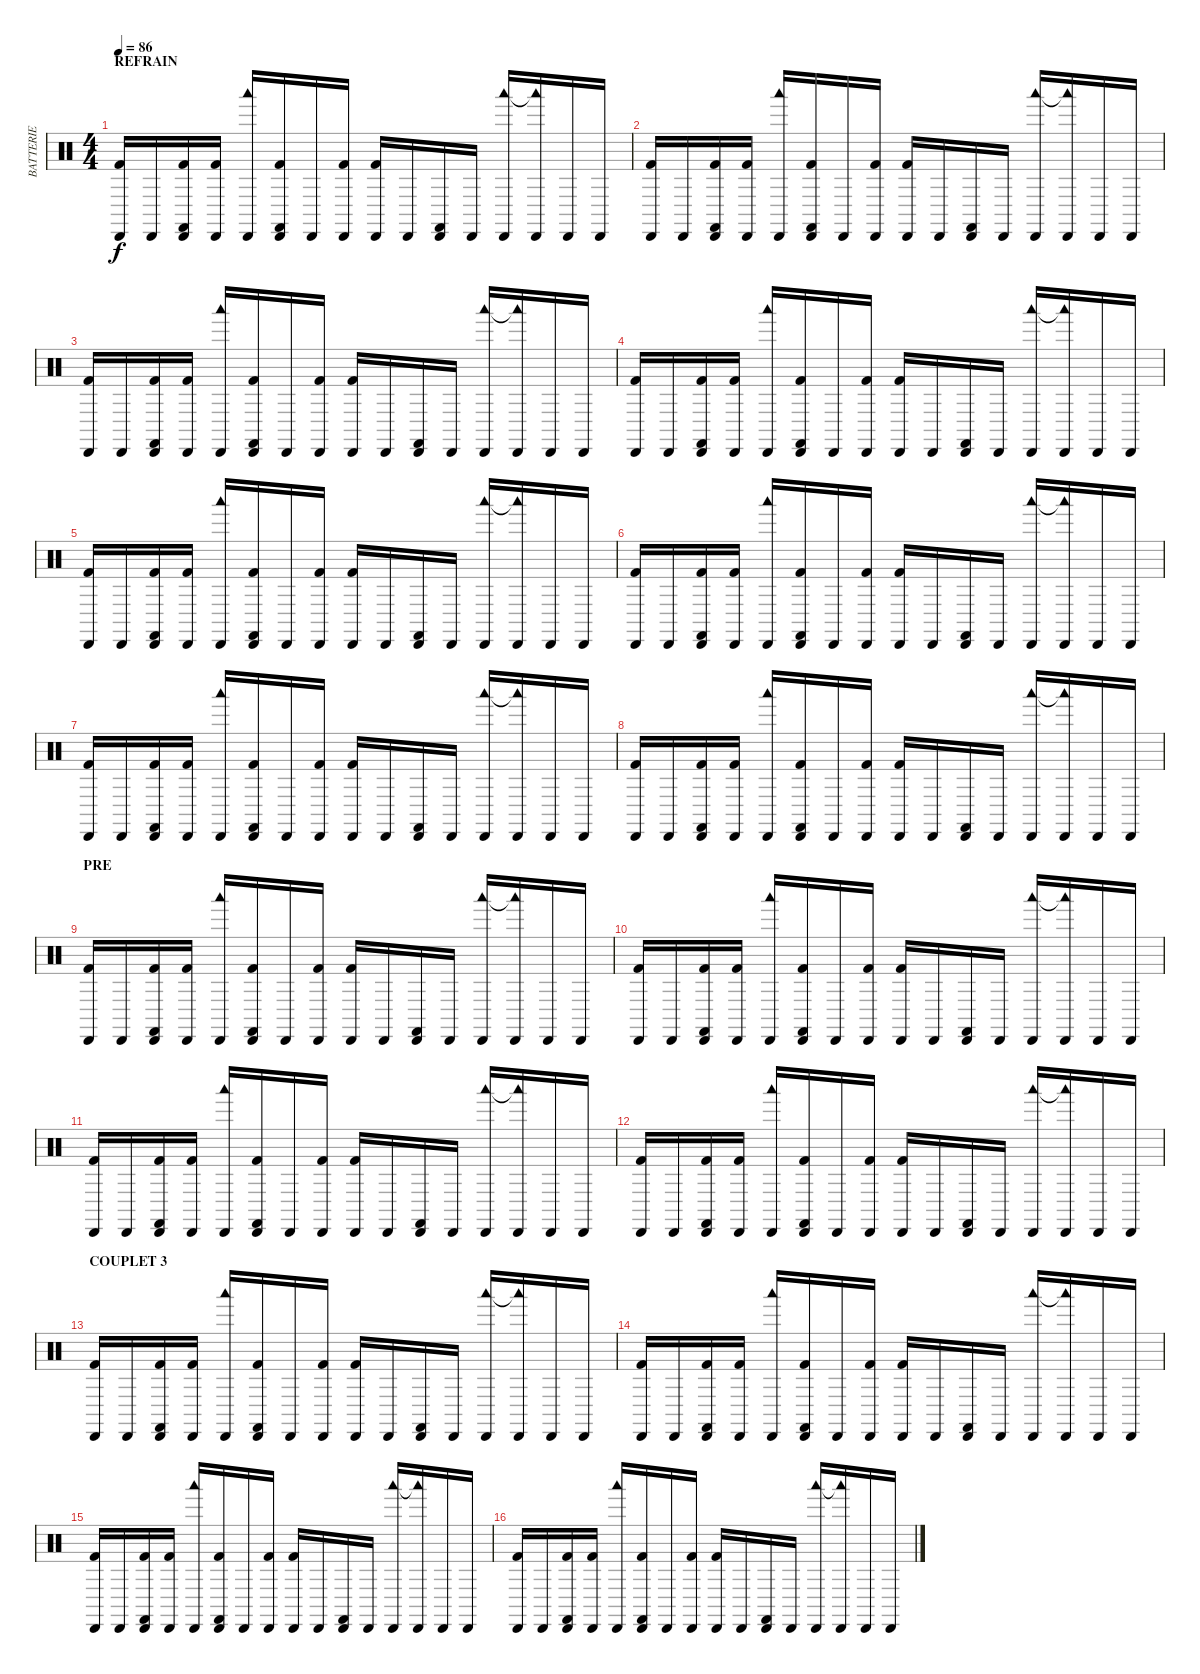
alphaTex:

\track ("BATTERIE" "BATTERIE") {instrument percussion}
\staff {score}
\articulation defaults
\ts (4 4)
\section ("" "REFRAIN")
\tempo 86
\clef neutral
\ks c
("Cabasa (hit)" "Kick (hit) 2").16{dy f} "Cabasa (hit)".16 ("Cabasa (hit)" "Castanets (hit)" "Kick (hit) 2").16 ("Cabasa (hit)" "Kick (hit) 2").16 ("Cabasa (hit)" "Woodblock low (hit)").16 ("Cabasa (hit)" "Castanets (hit)" "Kick (hit) 2").16 "Cabasa (hit)".16 ("Cabasa (hit)" "Kick (hit) 2").16 ("Cabasa (hit)" "Kick (hit) 2").16 "Cabasa (hit)".16 ("Cabasa (hit)" "Castanets (hit)").16 "Cabasa (hit)".16 ("Cabasa (hit)" "Woodblock low (hit)").16 ("Cabasa (hit)" "Woodblock low (hit)"{t}).16 "Cabasa (hit)".16 "Cabasa (hit)".16 |
("Cabasa (hit)" "Kick (hit) 2").16 "Cabasa (hit)".16 ("Cabasa (hit)" "Castanets (hit)" "Kick (hit) 2").16 ("Cabasa (hit)" "Kick (hit) 2").16 ("Cabasa (hit)" "Woodblock low (hit)").16 ("Cabasa (hit)" "Castanets (hit)" "Kick (hit) 2").16 "Cabasa (hit)".16 ("Cabasa (hit)" "Kick (hit) 2").16 ("Cabasa (hit)" "Kick (hit) 2").16 "Cabasa (hit)".16 ("Cabasa (hit)" "Castanets (hit)").16 "Cabasa (hit)".16 ("Cabasa (hit)" "Woodblock low (hit)").16 ("Cabasa (hit)" "Woodblock low (hit)"{t}).16 "Cabasa (hit)".16 "Cabasa (hit)".16 |
("Cabasa (hit)" "Kick (hit) 2").16 "Cabasa (hit)".16 ("Cabasa (hit)" "Castanets (hit)" "Kick (hit) 2").16 ("Cabasa (hit)" "Kick (hit) 2").16 ("Cabasa (hit)" "Woodblock low (hit)").16 ("Cabasa (hit)" "Castanets (hit)" "Kick (hit) 2").16 "Cabasa (hit)".16 ("Cabasa (hit)" "Kick (hit) 2").16 ("Cabasa (hit)" "Kick (hit) 2").16 "Cabasa (hit)".16 ("Cabasa (hit)" "Castanets (hit)").16 "Cabasa (hit)".16 ("Cabasa (hit)" "Woodblock low (hit)").16 ("Cabasa (hit)" "Woodblock low (hit)"{t}).16 "Cabasa (hit)".16 "Cabasa (hit)".16 |
("Cabasa (hit)" "Kick (hit) 2").16 "Cabasa (hit)".16 ("Cabasa (hit)" "Castanets (hit)" "Kick (hit) 2").16 ("Cabasa (hit)" "Kick (hit) 2").16 ("Cabasa (hit)" "Woodblock low (hit)").16 ("Cabasa (hit)" "Castanets (hit)" "Kick (hit) 2").16 "Cabasa (hit)".16 ("Cabasa (hit)" "Kick (hit) 2").16 ("Cabasa (hit)" "Kick (hit) 2").16 "Cabasa (hit)".16 ("Cabasa (hit)" "Castanets (hit)").16 "Cabasa (hit)".16 ("Cabasa (hit)" "Woodblock low (hit)").16 ("Cabasa (hit)" "Woodblock low (hit)"{t}).16 "Cabasa (hit)".16 "Cabasa (hit)".16 |
("Cabasa (hit)" "Kick (hit) 2").16 "Cabasa (hit)".16 ("Cabasa (hit)" "Castanets (hit)" "Kick (hit) 2").16 ("Cabasa (hit)" "Kick (hit) 2").16 ("Cabasa (hit)" "Woodblock low (hit)").16 ("Cabasa (hit)" "Castanets (hit)" "Kick (hit) 2").16 "Cabasa (hit)".16 ("Cabasa (hit)" "Kick (hit) 2").16 ("Cabasa (hit)" "Kick (hit) 2").16 "Cabasa (hit)".16 ("Cabasa (hit)" "Castanets (hit)").16 "Cabasa (hit)".16 ("Cabasa (hit)" "Woodblock low (hit)").16 ("Cabasa (hit)" "Woodblock low (hit)"{t}).16 "Cabasa (hit)".16 "Cabasa (hit)".16 |
("Cabasa (hit)" "Kick (hit) 2").16 "Cabasa (hit)".16 ("Cabasa (hit)" "Castanets (hit)" "Kick (hit) 2").16 ("Cabasa (hit)" "Kick (hit) 2").16 ("Cabasa (hit)" "Woodblock low (hit)").16 ("Cabasa (hit)" "Castanets (hit)" "Kick (hit) 2").16 "Cabasa (hit)".16 ("Cabasa (hit)" "Kick (hit) 2").16 ("Cabasa (hit)" "Kick (hit) 2").16 "Cabasa (hit)".16 ("Cabasa (hit)" "Castanets (hit)").16 "Cabasa (hit)".16 ("Cabasa (hit)" "Woodblock low (hit)").16 ("Cabasa (hit)" "Woodblock low (hit)"{t}).16 "Cabasa (hit)".16 "Cabasa (hit)".16 |
("Cabasa (hit)" "Kick (hit) 2").16 "Cabasa (hit)".16 ("Cabasa (hit)" "Castanets (hit)" "Kick (hit) 2").16 ("Cabasa (hit)" "Kick (hit) 2").16 ("Cabasa (hit)" "Woodblock low (hit)").16 ("Cabasa (hit)" "Castanets (hit)" "Kick (hit) 2").16 "Cabasa (hit)".16 ("Cabasa (hit)" "Kick (hit) 2").16 ("Cabasa (hit)" "Kick (hit) 2").16 "Cabasa (hit)".16 ("Cabasa (hit)" "Castanets (hit)").16 "Cabasa (hit)".16 ("Cabasa (hit)" "Woodblock low (hit)").16 ("Cabasa (hit)" "Woodblock low (hit)"{t}).16 "Cabasa (hit)".16 "Cabasa (hit)".16 |
("Cabasa (hit)" "Kick (hit) 2").16 "Cabasa (hit)".16 ("Cabasa (hit)" "Castanets (hit)" "Kick (hit) 2").16 ("Cabasa (hit)" "Kick (hit) 2").16 ("Cabasa (hit)" "Woodblock low (hit)").16 ("Cabasa (hit)" "Castanets (hit)" "Kick (hit) 2").16 "Cabasa (hit)".16 ("Cabasa (hit)" "Kick (hit) 2").16 ("Cabasa (hit)" "Kick (hit) 2").16 "Cabasa (hit)".16 ("Cabasa (hit)" "Castanets (hit)").16 "Cabasa (hit)".16 ("Cabasa (hit)" "Woodblock low (hit)").16 ("Cabasa (hit)" "Woodblock low (hit)"{t}).16 "Cabasa (hit)".16 "Cabasa (hit)".16 |
\section ("" "PRE")
("Cabasa (hit)" "Kick (hit) 2").16 "Cabasa (hit)".16 ("Cabasa (hit)" "Castanets (hit)" "Kick (hit) 2").16 ("Cabasa (hit)" "Kick (hit) 2").16 ("Cabasa (hit)" "Woodblock low (hit)").16 ("Cabasa (hit)" "Castanets (hit)" "Kick (hit) 2").16 "Cabasa (hit)".16 ("Cabasa (hit)" "Kick (hit) 2").16 ("Cabasa (hit)" "Kick (hit) 2").16 "Cabasa (hit)".16 ("Cabasa (hit)" "Castanets (hit)").16 "Cabasa (hit)".16 ("Cabasa (hit)" "Woodblock low (hit)").16 ("Cabasa (hit)" "Woodblock low (hit)"{t}).16 "Cabasa (hit)".16 "Cabasa (hit)".16 |
("Cabasa (hit)" "Kick (hit) 2").16 "Cabasa (hit)".16 ("Cabasa (hit)" "Castanets (hit)" "Kick (hit) 2").16 ("Cabasa (hit)" "Kick (hit) 2").16 ("Cabasa (hit)" "Woodblock low (hit)").16 ("Cabasa (hit)" "Castanets (hit)" "Kick (hit) 2").16 "Cabasa (hit)".16 ("Cabasa (hit)" "Kick (hit) 2").16 ("Cabasa (hit)" "Kick (hit) 2").16 "Cabasa (hit)".16 ("Cabasa (hit)" "Castanets (hit)").16 "Cabasa (hit)".16 ("Cabasa (hit)" "Woodblock low (hit)").16 ("Cabasa (hit)" "Woodblock low (hit)"{t}).16 "Cabasa (hit)".16 "Cabasa (hit)".16 |
("Cabasa (hit)" "Kick (hit) 2").16 "Cabasa (hit)".16 ("Cabasa (hit)" "Castanets (hit)" "Kick (hit) 2").16 ("Cabasa (hit)" "Kick (hit) 2").16 ("Cabasa (hit)" "Woodblock low (hit)").16 ("Cabasa (hit)" "Castanets (hit)" "Kick (hit) 2").16 "Cabasa (hit)".16 ("Cabasa (hit)" "Kick (hit) 2").16 ("Cabasa (hit)" "Kick (hit) 2").16 "Cabasa (hit)".16 ("Cabasa (hit)" "Castanets (hit)").16 "Cabasa (hit)".16 ("Cabasa (hit)" "Woodblock low (hit)").16 ("Cabasa (hit)" "Woodblock low (hit)"{t}).16 "Cabasa (hit)".16 "Cabasa (hit)".16 |
("Cabasa (hit)" "Kick (hit) 2").16 "Cabasa (hit)".16 ("Cabasa (hit)" "Castanets (hit)" "Kick (hit) 2").16 ("Cabasa (hit)" "Kick (hit) 2").16 ("Cabasa (hit)" "Woodblock low (hit)").16 ("Cabasa (hit)" "Castanets (hit)" "Kick (hit) 2").16 "Cabasa (hit)".16 ("Cabasa (hit)" "Kick (hit) 2").16 ("Cabasa (hit)" "Kick (hit) 2").16 "Cabasa (hit)".16 ("Cabasa (hit)" "Castanets (hit)").16 "Cabasa (hit)".16 ("Cabasa (hit)" "Woodblock low (hit)").16 ("Cabasa (hit)" "Woodblock low (hit)"{t}).16 "Cabasa (hit)".16 "Cabasa (hit)".16 |
\section ("" "COUPLET 3")
("Cabasa (hit)" "Kick (hit) 2").16 "Cabasa (hit)".16 ("Cabasa (hit)" "Castanets (hit)" "Kick (hit) 2").16 ("Cabasa (hit)" "Kick (hit) 2").16 ("Cabasa (hit)" "Woodblock low (hit)").16 ("Cabasa (hit)" "Castanets (hit)" "Kick (hit) 2").16 "Cabasa (hit)".16 ("Cabasa (hit)" "Kick (hit) 2").16 ("Cabasa (hit)" "Kick (hit) 2").16 "Cabasa (hit)".16 ("Cabasa (hit)" "Castanets (hit)").16 "Cabasa (hit)".16 ("Cabasa (hit)" "Woodblock low (hit)").16 ("Cabasa (hit)" "Woodblock low (hit)"{t}).16 "Cabasa (hit)".16 "Cabasa (hit)".16 |
("Cabasa (hit)" "Kick (hit) 2").16 "Cabasa (hit)".16 ("Cabasa (hit)" "Castanets (hit)" "Kick (hit) 2").16 ("Cabasa (hit)" "Kick (hit) 2").16 ("Cabasa (hit)" "Woodblock low (hit)").16 ("Cabasa (hit)" "Castanets (hit)" "Kick (hit) 2").16 "Cabasa (hit)".16 ("Cabasa (hit)" "Kick (hit) 2").16 ("Cabasa (hit)" "Kick (hit) 2").16 "Cabasa (hit)".16 ("Cabasa (hit)" "Castanets (hit)").16 "Cabasa (hit)".16 ("Cabasa (hit)" "Woodblock low (hit)").16 ("Cabasa (hit)" "Woodblock low (hit)"{t}).16 "Cabasa (hit)".16 "Cabasa (hit)".16 |
("Cabasa (hit)" "Kick (hit) 2").16 "Cabasa (hit)".16 ("Cabasa (hit)" "Castanets (hit)" "Kick (hit) 2").16 ("Cabasa (hit)" "Kick (hit) 2").16 ("Cabasa (hit)" "Woodblock low (hit)").16 ("Cabasa (hit)" "Castanets (hit)" "Kick (hit) 2").16 "Cabasa (hit)".16 ("Cabasa (hit)" "Kick (hit) 2").16 ("Cabasa (hit)" "Kick (hit) 2").16 "Cabasa (hit)".16 ("Cabasa (hit)" "Castanets (hit)").16 "Cabasa (hit)".16 ("Cabasa (hit)" "Woodblock low (hit)").16 ("Cabasa (hit)" "Woodblock low (hit)"{t}).16 "Cabasa (hit)".16 "Cabasa (hit)".16 |
("Cabasa (hit)" "Kick (hit) 2").16 "Cabasa (hit)".16 ("Cabasa (hit)" "Castanets (hit)" "Kick (hit) 2").16 ("Cabasa (hit)" "Kick (hit) 2").16 ("Cabasa (hit)" "Woodblock low (hit)").16 ("Cabasa (hit)" "Castanets (hit)" "Kick (hit) 2").16 "Cabasa (hit)".16 ("Cabasa (hit)" "Kick (hit) 2").16 ("Cabasa (hit)" "Kick (hit) 2").16 "Cabasa (hit)".16 ("Cabasa (hit)" "Castanets (hit)").16 "Cabasa (hit)".16 ("Cabasa (hit)" "Woodblock low (hit)").16 ("Cabasa (hit)" "Woodblock low (hit)"{t}).16 "Cabasa (hit)".16 "Cabasa (hit)".16
